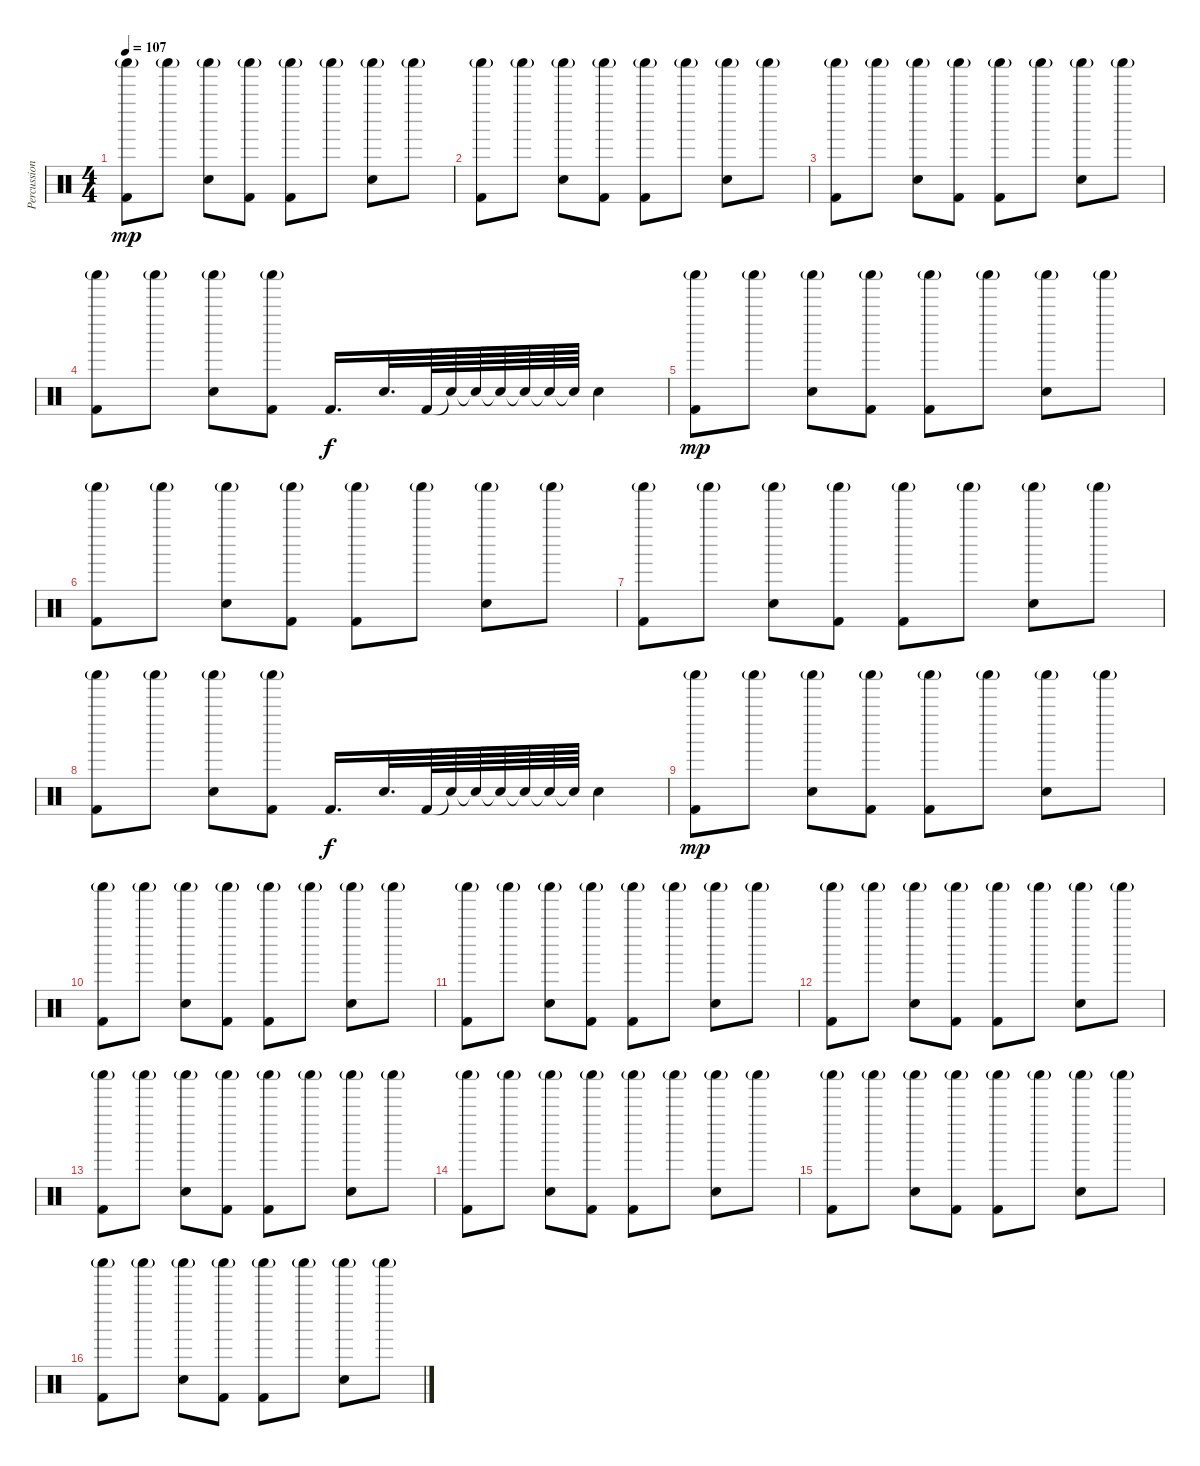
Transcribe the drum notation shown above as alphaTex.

\track ("Percussion" "Percussion") {instrument percussion}
\staff {score}
\articulation defaults
\ts (4 4)
\tempo 107
\clef neutral
\ks c
("Shaker (hit)"{g} "Kick (hit) 2").8{dy mp} "Shaker (hit)"{g}.8 ("Shaker (hit)"{g} "Electric Snare (hit)").8 ("Shaker (hit)"{g} "Kick (hit) 2").8 ("Shaker (hit)"{g} "Kick (hit) 2").8 "Shaker (hit)"{g}.8 ("Shaker (hit)"{g} "Electric Snare (hit)").8 "Shaker (hit)"{g}.8 |
("Shaker (hit)"{g} "Kick (hit) 2").8 "Shaker (hit)"{g}.8 ("Shaker (hit)"{g} "Electric Snare (hit)").8 ("Shaker (hit)"{g} "Kick (hit) 2").8 ("Shaker (hit)"{g} "Kick (hit) 2").8 "Shaker (hit)"{g}.8 ("Shaker (hit)"{g} "Electric Snare (hit)").8 "Shaker (hit)"{g}.8 |
("Shaker (hit)"{g} "Kick (hit) 2").8 "Shaker (hit)"{g}.8 ("Shaker (hit)"{g} "Electric Snare (hit)").8 ("Shaker (hit)"{g} "Kick (hit) 2").8 ("Shaker (hit)"{g} "Kick (hit) 2").8 "Shaker (hit)"{g}.8 ("Shaker (hit)"{g} "Electric Snare (hit)").8 "Shaker (hit)"{g}.8 |
("Shaker (hit)"{g} "Kick (hit) 2").8 "Shaker (hit)"{g}.8 ("Shaker (hit)"{g} "Electric Snare (hit)").8 ("Shaker (hit)"{g} "Kick (hit) 2").8 "Kick (hit) 2".16{d dy f} "Electric Snare (hit)".32{d} "Kick (hit) 2".64 "Snare (hit)"{t}.64 "Snare (hit)"{t}.64 "Snare (hit)"{t}.64 "Snare (hit)"{t}.64 "Snare (hit)"{t}.64 "Snare (hit)"{t}.64 "Electric Snare (hit)".4 |
("Shaker (hit)"{g} "Kick (hit) 2").8{dy mp} "Shaker (hit)"{g}.8 ("Shaker (hit)"{g} "Electric Snare (hit)").8 ("Shaker (hit)"{g} "Kick (hit) 2").8 ("Shaker (hit)"{g} "Kick (hit) 2").8 "Shaker (hit)"{g}.8 ("Shaker (hit)"{g} "Electric Snare (hit)").8 "Shaker (hit)"{g}.8 |
("Shaker (hit)"{g} "Kick (hit) 2").8 "Shaker (hit)"{g}.8 ("Shaker (hit)"{g} "Electric Snare (hit)").8 ("Shaker (hit)"{g} "Kick (hit) 2").8 ("Shaker (hit)"{g} "Kick (hit) 2").8 "Shaker (hit)"{g}.8 ("Shaker (hit)"{g} "Electric Snare (hit)").8 "Shaker (hit)"{g}.8 |
("Shaker (hit)"{g} "Kick (hit) 2").8 "Shaker (hit)"{g}.8 ("Shaker (hit)"{g} "Electric Snare (hit)").8 ("Shaker (hit)"{g} "Kick (hit) 2").8 ("Shaker (hit)"{g} "Kick (hit) 2").8 "Shaker (hit)"{g}.8 ("Shaker (hit)"{g} "Electric Snare (hit)").8 "Shaker (hit)"{g}.8 |
("Shaker (hit)"{g} "Kick (hit) 2").8 "Shaker (hit)"{g}.8 ("Shaker (hit)"{g} "Electric Snare (hit)").8 ("Shaker (hit)"{g} "Kick (hit) 2").8 "Kick (hit) 2".16{d dy f} "Electric Snare (hit)".32{d} "Kick (hit) 2".64 "Snare (hit)"{t}.64 "Snare (hit)"{t}.64 "Snare (hit)"{t}.64 "Snare (hit)"{t}.64 "Snare (hit)"{t}.64 "Snare (hit)"{t}.64 "Electric Snare (hit)".4 |
("Shaker (hit)"{g} "Kick (hit) 2").8{dy mp} "Shaker (hit)"{g}.8 ("Shaker (hit)"{g} "Electric Snare (hit)").8 ("Shaker (hit)"{g} "Kick (hit) 2").8 ("Shaker (hit)"{g} "Kick (hit) 2").8 "Shaker (hit)"{g}.8 ("Shaker (hit)"{g} "Electric Snare (hit)").8 "Shaker (hit)"{g}.8 |
("Shaker (hit)"{g} "Kick (hit) 2").8 "Shaker (hit)"{g}.8 ("Shaker (hit)"{g} "Electric Snare (hit)").8 ("Shaker (hit)"{g} "Kick (hit) 2").8 ("Shaker (hit)"{g} "Kick (hit) 2").8 "Shaker (hit)"{g}.8 ("Shaker (hit)"{g} "Electric Snare (hit)").8 "Shaker (hit)"{g}.8 |
("Shaker (hit)"{g} "Kick (hit) 2").8 "Shaker (hit)"{g}.8 ("Shaker (hit)"{g} "Electric Snare (hit)").8 ("Shaker (hit)"{g} "Kick (hit) 2").8 ("Shaker (hit)"{g} "Kick (hit) 2").8 "Shaker (hit)"{g}.8 ("Shaker (hit)"{g} "Electric Snare (hit)").8 "Shaker (hit)"{g}.8 |
("Shaker (hit)"{g} "Kick (hit) 2").8 "Shaker (hit)"{g}.8 ("Shaker (hit)"{g} "Electric Snare (hit)").8 ("Shaker (hit)"{g} "Kick (hit) 2").8 ("Shaker (hit)"{g} "Kick (hit) 2").8 "Shaker (hit)"{g}.8 ("Shaker (hit)"{g} "Electric Snare (hit)").8 "Shaker (hit)"{g}.8 |
("Shaker (hit)"{g} "Kick (hit) 2").8 "Shaker (hit)"{g}.8 ("Shaker (hit)"{g} "Electric Snare (hit)").8 ("Shaker (hit)"{g} "Kick (hit) 2").8 ("Shaker (hit)"{g} "Kick (hit) 2").8 "Shaker (hit)"{g}.8 ("Shaker (hit)"{g} "Electric Snare (hit)").8 "Shaker (hit)"{g}.8 |
("Shaker (hit)"{g} "Kick (hit) 2").8 "Shaker (hit)"{g}.8 ("Shaker (hit)"{g} "Electric Snare (hit)").8 ("Shaker (hit)"{g} "Kick (hit) 2").8 ("Shaker (hit)"{g} "Kick (hit) 2").8 "Shaker (hit)"{g}.8 ("Shaker (hit)"{g} "Electric Snare (hit)").8 "Shaker (hit)"{g}.8 |
("Shaker (hit)"{g} "Kick (hit) 2").8 "Shaker (hit)"{g}.8 ("Shaker (hit)"{g} "Electric Snare (hit)").8 ("Shaker (hit)"{g} "Kick (hit) 2").8 ("Shaker (hit)"{g} "Kick (hit) 2").8 "Shaker (hit)"{g}.8 ("Shaker (hit)"{g} "Electric Snare (hit)").8 "Shaker (hit)"{g}.8 |
("Shaker (hit)"{g} "Kick (hit) 2").8 "Shaker (hit)"{g}.8 ("Shaker (hit)"{g} "Electric Snare (hit)").8 ("Shaker (hit)"{g} "Kick (hit) 2").8 ("Shaker (hit)"{g} "Kick (hit) 2").8 "Shaker (hit)"{g}.8 ("Shaker (hit)"{g} "Electric Snare (hit)").8 "Shaker (hit)"{g}.8
